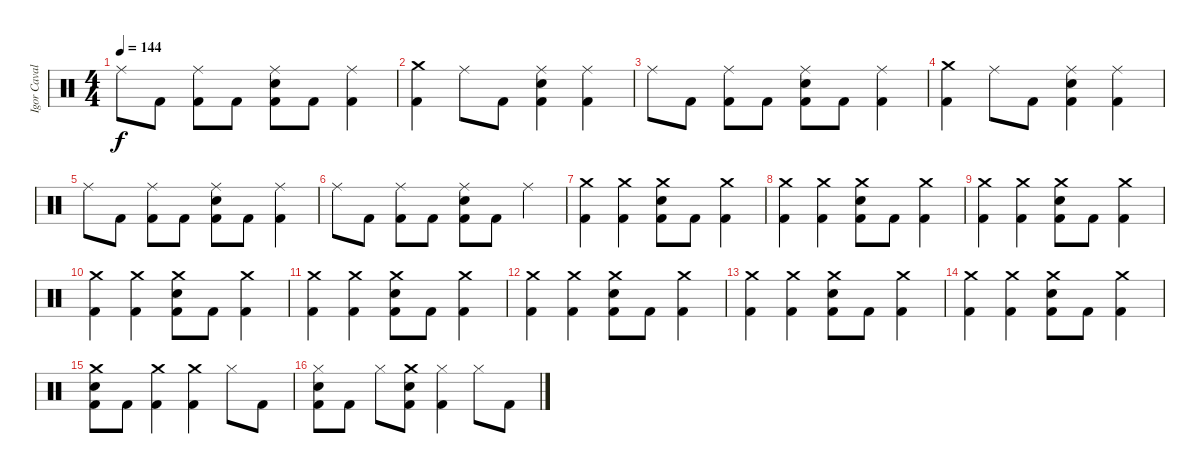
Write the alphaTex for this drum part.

\track ("Igor Cavalera" "Igor Caval") {instrument percussion}
\staff {score}
\articulation defaults
\ts (4 4)
\tempo 144
\clef neutral
\ks c "Ride (middle)".8{dy f} "Kick (hit) 2".8
("Kick (hit) 2" "Ride (middle)").8 "Kick (hit) 2".8 ("Snare (hit) 2" "Ride (middle)" "Kick (hit) 2").8 "Kick (hit) 2".8 ("Kick (hit) 2" "Ride (middle)").4 |
("Kick (hit) 2" "Crash medium (hit)").4 "Ride (middle)".8 "Kick (hit) 2".8 ("Snare (hit) 2" "Ride (middle)" "Kick (hit) 2").4 ("Kick (hit) 2" "Ride (middle)").4 |
"Ride (middle)".8 "Kick (hit) 2".8 ("Kick (hit) 2" "Ride (middle)").8 "Kick (hit) 2".8 ("Snare (hit) 2" "Ride (middle)" "Kick (hit) 2").8 "Kick (hit) 2".8 ("Kick (hit) 2" "Ride (middle)").4 |
("Kick (hit) 2" "Crash medium (hit)").4 "Ride (middle)".8 "Kick (hit) 2".8 ("Snare (hit) 2" "Ride (middle)" "Kick (hit) 2").4 ("Kick (hit) 2" "Ride (middle)").4 |
"Ride (middle)".8 "Kick (hit) 2".8 ("Kick (hit) 2" "Ride (middle)").8 "Kick (hit) 2".8 ("Snare (hit) 2" "Ride (middle)" "Kick (hit) 2").8 "Kick (hit) 2".8 ("Kick (hit) 2" "Ride (middle)").4 |
"Ride (middle)".8 "Kick (hit) 2".8 ("Ride (middle)" "Kick (hit) 2").8 "Kick (hit) 2".8 ("Snare (hit) 2" "Ride (middle)" "Kick (hit) 2").8 "Kick (hit) 2".8 "Ride (middle)".4 |
("Kick (hit) 2" "Crash medium (hit)").4 ("Kick (hit) 2" "Crash medium (hit)").4 ("Snare (hit) 2" "Crash medium (hit)" "Kick (hit) 2").8 "Kick (hit) 2".8 ("Kick (hit) 2" "Crash medium (hit)").4 |
("Kick (hit) 2" "Crash medium (hit)").4 ("Kick (hit) 2" "Crash medium (hit)").4 ("Snare (hit) 2" "Crash medium (hit)" "Kick (hit) 2").8 "Kick (hit) 2".8 ("Kick (hit) 2" "Crash medium (hit)").4 |
("Kick (hit) 2" "Crash medium (hit)").4 ("Kick (hit) 2" "Crash medium (hit)").4 ("Snare (hit) 2" "Crash medium (hit)" "Kick (hit) 2").8 "Kick (hit) 2".8 ("Kick (hit) 2" "Crash medium (hit)").4 |
("Kick (hit) 2" "Crash medium (hit)").4 ("Kick (hit) 2" "Crash medium (hit)").4 ("Snare (hit) 2" "Crash medium (hit)" "Kick (hit) 2").8 "Kick (hit) 2".8 ("Kick (hit) 2" "Crash medium (hit)").4 |
("Kick (hit) 2" "Crash medium (hit)").4 ("Kick (hit) 2" "Crash medium (hit)").4 ("Snare (hit) 2" "Crash medium (hit)" "Kick (hit) 2").8 "Kick (hit) 2".8 ("Kick (hit) 2" "Crash medium (hit)").4 |
("Kick (hit) 2" "Crash medium (hit)").4 ("Kick (hit) 2" "Crash medium (hit)").4 ("Snare (hit) 2" "Crash medium (hit)" "Kick (hit) 2").8 "Kick (hit) 2".8 ("Kick (hit) 2" "Crash medium (hit)").4 |
("Kick (hit) 2" "Crash medium (hit)").4 ("Kick (hit) 2" "Crash medium (hit)").4 ("Snare (hit) 2" "Crash medium (hit)" "Kick (hit) 2").8 "Kick (hit) 2".8 ("Kick (hit) 2" "Crash medium (hit)").4 |
("Kick (hit) 2" "Crash medium (hit)").4 ("Kick (hit) 2" "Crash medium (hit)").4 ("Snare (hit) 2" "Crash medium (hit)" "Kick (hit) 2").8 "Kick (hit) 2".8 ("Kick (hit) 2" "Crash medium (hit)").4 |
("Snare (hit) 2" "Crash medium (hit)" "Kick (hit) 2").8 "Kick (hit) 2".8 ("Crash medium (hit)" "Kick (hit) 2").4 ("Kick (hit) 2" "Crash medium (hit)").4 "Hi-Hat (closed)".8 "Kick (hit) 2".8 |
("Snare (hit) 2" "Hi-Hat (closed)" "Kick (hit) 2").8 "Kick (hit) 2".8 "Hi-Hat (closed)".8 ("Snare (hit) 2" "Kick (hit) 2" "Crash medium (hit)").8 ("Kick (hit) 2" "Hi-Hat (closed)").4 "Hi-Hat (closed)".8 "Kick (hit) 2".8
